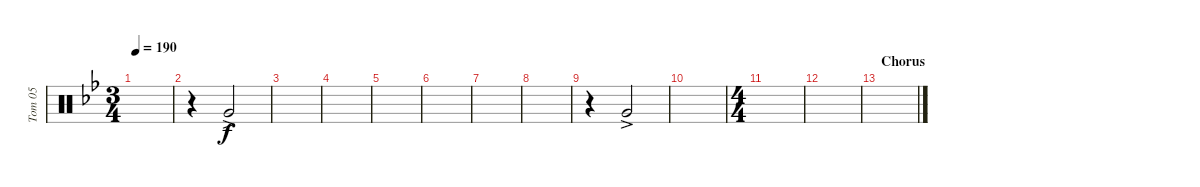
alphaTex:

\track ("Tom 05" "Tom 05") {instrument percussion}
\staff {score}
\articulation defaults
\ts (3 4)
\tempo 190
\clef neutral
\ks bb
|
r.4 "Very Low Tom (hit)"{ac}.2 |
|
|
|
|
|
|
r.4 "Very Low Tom (hit)"{ac}.2 |
|
\ts (4 4)
|
|
\section ("" "Chorus")
